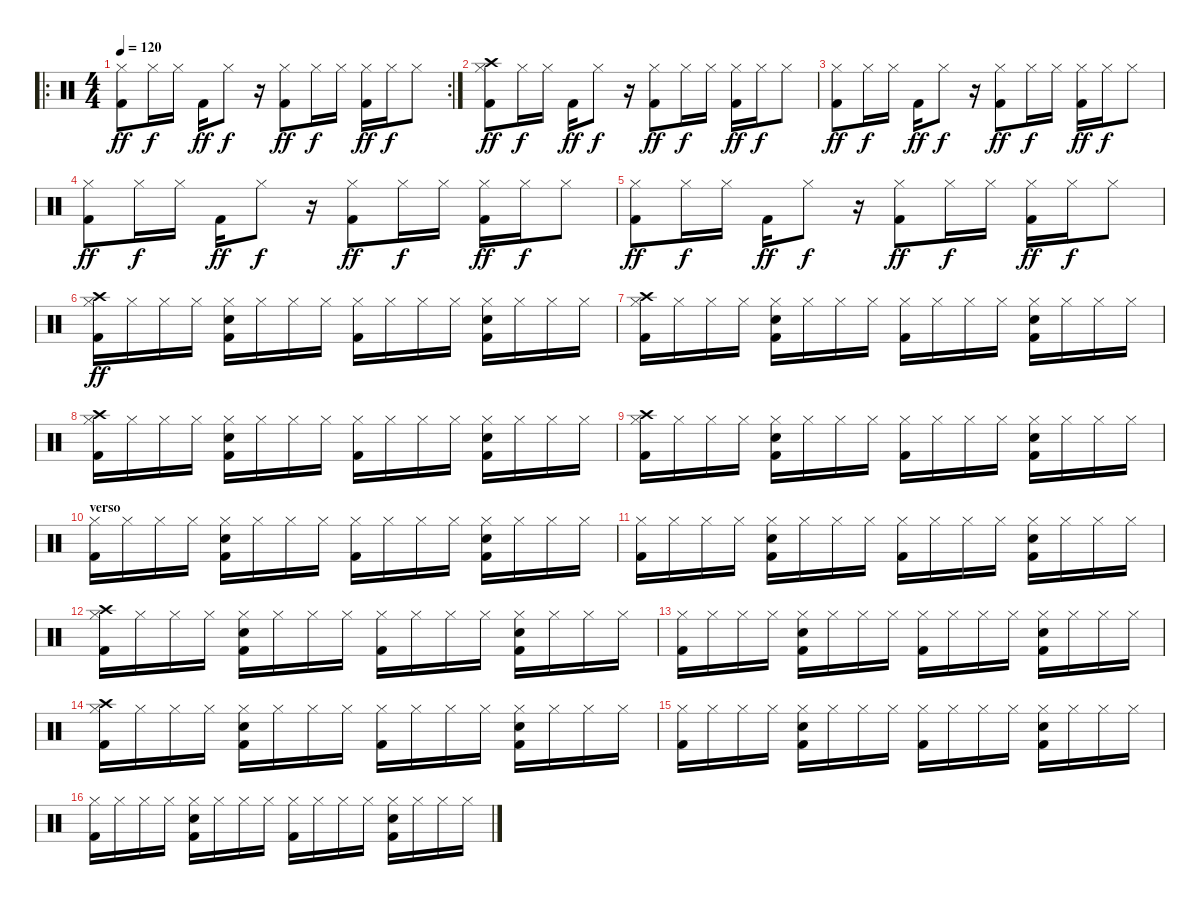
\track "" {instrument percussion}
\staff {score}
\articulation defaults
\ro
\rc 2
\ts (4 4)
\tempo 120
\clef neutral
\ks c
("Hi-Hat (closed)" "Kick (hit) 2").8{dy ff} "Hi-Hat (closed)".16{dy f} "Hi-Hat (closed)".16 "Kick (hit) 2".16{dy ff} "Hi-Hat (closed)".8{dy f} r.16 ("Hi-Hat (closed)" "Kick (hit) 2").8{dy ff} "Hi-Hat (closed)".16{dy f} "Hi-Hat (closed)".16 ("Hi-Hat (closed)" "Kick (hit) 2").16{dy ff} "Hi-Hat (closed)".16{dy f} "Hi-Hat (closed)".8 |
("Crash high (hit)" "Hi-Hat (closed)" "Kick (hit) 2").8{dy ff} "Hi-Hat (closed)".16{dy f} "Hi-Hat (closed)".16 "Kick (hit) 2".16{dy ff} "Hi-Hat (closed)".8{dy f} r.16 ("Hi-Hat (closed)" "Kick (hit) 2").8{dy ff} "Hi-Hat (closed)".16{dy f} "Hi-Hat (closed)".16 ("Hi-Hat (closed)" "Kick (hit) 2").16{dy ff} "Hi-Hat (closed)".16{dy f} "Hi-Hat (closed)".8 |
("Hi-Hat (closed)" "Kick (hit) 2").8{dy ff} "Hi-Hat (closed)".16{dy f} "Hi-Hat (closed)".16 "Kick (hit) 2".16{dy ff} "Hi-Hat (closed)".8{dy f} r.16 ("Hi-Hat (closed)" "Kick (hit) 2").8{dy ff} "Hi-Hat (closed)".16{dy f} "Hi-Hat (closed)".16 ("Hi-Hat (closed)" "Kick (hit) 2").16{dy ff} "Hi-Hat (closed)".16{dy f} "Hi-Hat (closed)".8 |
("Hi-Hat (closed)" "Kick (hit) 2").8{dy ff} "Hi-Hat (closed)".16{dy f} "Hi-Hat (closed)".16 "Kick (hit) 2".16{dy ff} "Hi-Hat (closed)".8{dy f} r.16 ("Hi-Hat (closed)" "Kick (hit) 2").8{dy ff} "Hi-Hat (closed)".16{dy f} "Hi-Hat (closed)".16 ("Hi-Hat (closed)" "Kick (hit) 2").16{dy ff} "Hi-Hat (closed)".16{dy f} "Hi-Hat (closed)".8 |
("Hi-Hat (closed)" "Kick (hit) 2").8{dy ff} "Hi-Hat (closed)".16{dy f} "Hi-Hat (closed)".16 "Kick (hit) 2".16{dy ff} "Hi-Hat (closed)".8{dy f} r.16 ("Hi-Hat (closed)" "Kick (hit) 2").8{dy ff} "Hi-Hat (closed)".16{dy f} "Hi-Hat (closed)".16 ("Hi-Hat (closed)" "Kick (hit) 2").16{dy ff} "Hi-Hat (closed)".16{dy f} "Hi-Hat (closed)".8 |
("Crash high (hit)" "Hi-Hat (closed)" "Kick (hit) 2").16{dy ff} "Hi-Hat (closed)".16 "Hi-Hat (closed)".16 "Hi-Hat (closed)".16 ("Hi-Hat (closed)" "Electric Snare (hit)" "Kick (hit) 2").16 "Hi-Hat (closed)".16 "Hi-Hat (closed)".16 "Hi-Hat (closed)".16 ("Hi-Hat (closed)" "Kick (hit) 2").16 "Hi-Hat (closed)".16 "Hi-Hat (closed)".16 "Hi-Hat (closed)".16 ("Hi-Hat (closed)" "Electric Snare (hit)" "Kick (hit) 2").16 "Hi-Hat (closed)".16 "Hi-Hat (closed)".16 "Hi-Hat (closed)".16 |
("Crash high (hit)" "Hi-Hat (closed)" "Kick (hit) 2").16 "Hi-Hat (closed)".16 "Hi-Hat (closed)".16 "Hi-Hat (closed)".16 ("Hi-Hat (closed)" "Electric Snare (hit)" "Kick (hit) 2").16 "Hi-Hat (closed)".16 "Hi-Hat (closed)".16 "Hi-Hat (closed)".16 ("Hi-Hat (closed)" "Kick (hit) 2").16 "Hi-Hat (closed)".16 "Hi-Hat (closed)".16 "Hi-Hat (closed)".16 ("Hi-Hat (closed)" "Electric Snare (hit)" "Kick (hit) 2").16 "Hi-Hat (closed)".16 "Hi-Hat (closed)".16 "Hi-Hat (closed)".16 |
("Crash high (hit)" "Hi-Hat (closed)" "Kick (hit) 2").16 "Hi-Hat (closed)".16 "Hi-Hat (closed)".16 "Hi-Hat (closed)".16 ("Hi-Hat (closed)" "Electric Snare (hit)" "Kick (hit) 2").16 "Hi-Hat (closed)".16 "Hi-Hat (closed)".16 "Hi-Hat (closed)".16 ("Hi-Hat (closed)" "Kick (hit) 2").16 "Hi-Hat (closed)".16 "Hi-Hat (closed)".16 "Hi-Hat (closed)".16 ("Hi-Hat (closed)" "Electric Snare (hit)" "Kick (hit) 2").16 "Hi-Hat (closed)".16 "Hi-Hat (closed)".16 "Hi-Hat (closed)".16 |
("Crash high (hit)" "Hi-Hat (closed)" "Kick (hit) 2").16 "Hi-Hat (closed)".16 "Hi-Hat (closed)".16 "Hi-Hat (closed)".16 ("Hi-Hat (closed)" "Electric Snare (hit)" "Kick (hit) 2").16 "Hi-Hat (closed)".16 "Hi-Hat (closed)".16 "Hi-Hat (closed)".16 ("Hi-Hat (closed)" "Kick (hit) 2").16 "Hi-Hat (closed)".16 "Hi-Hat (closed)".16 "Hi-Hat (closed)".16 ("Hi-Hat (closed)" "Electric Snare (hit)" "Kick (hit) 2").16 "Hi-Hat (closed)".16 "Hi-Hat (closed)".16 "Hi-Hat (closed)".16 |
\section ("" "verso")
("Hi-Hat (closed)" "Kick (hit) 2").16 "Hi-Hat (closed)".16 "Hi-Hat (closed)".16 "Hi-Hat (closed)".16 ("Hi-Hat (closed)" "Electric Snare (hit)" "Kick (hit) 2").16 "Hi-Hat (closed)".16 "Hi-Hat (closed)".16 "Hi-Hat (closed)".16 ("Hi-Hat (closed)" "Kick (hit) 2").16 "Hi-Hat (closed)".16 "Hi-Hat (closed)".16 "Hi-Hat (closed)".16 ("Hi-Hat (closed)" "Electric Snare (hit)" "Kick (hit) 2").16 "Hi-Hat (closed)".16 "Hi-Hat (closed)".16 "Hi-Hat (closed)".16 |
("Hi-Hat (closed)" "Kick (hit) 2").16 "Hi-Hat (closed)".16 "Hi-Hat (closed)".16 "Hi-Hat (closed)".16 ("Hi-Hat (closed)" "Electric Snare (hit)" "Kick (hit) 2").16 "Hi-Hat (closed)".16 "Hi-Hat (closed)".16 "Hi-Hat (closed)".16 ("Hi-Hat (closed)" "Kick (hit) 2").16 "Hi-Hat (closed)".16 "Hi-Hat (closed)".16 "Hi-Hat (closed)".16 ("Hi-Hat (closed)" "Electric Snare (hit)" "Kick (hit) 2").16 "Hi-Hat (closed)".16 "Hi-Hat (closed)".16 "Hi-Hat (closed)".16 |
("Crash high (hit)" "Hi-Hat (closed)" "Kick (hit) 2").16 "Hi-Hat (closed)".16 "Hi-Hat (closed)".16 "Hi-Hat (closed)".16 ("Hi-Hat (closed)" "Electric Snare (hit)" "Kick (hit) 2").16 "Hi-Hat (closed)".16 "Hi-Hat (closed)".16 "Hi-Hat (closed)".16 ("Hi-Hat (closed)" "Kick (hit) 2").16 "Hi-Hat (closed)".16 "Hi-Hat (closed)".16 "Hi-Hat (closed)".16 ("Hi-Hat (closed)" "Electric Snare (hit)" "Kick (hit) 2").16 "Hi-Hat (closed)".16 "Hi-Hat (closed)".16 "Hi-Hat (closed)".16 |
("Hi-Hat (closed)" "Kick (hit) 2").16 "Hi-Hat (closed)".16 "Hi-Hat (closed)".16 "Hi-Hat (closed)".16 ("Hi-Hat (closed)" "Electric Snare (hit)" "Kick (hit) 2").16 "Hi-Hat (closed)".16 "Hi-Hat (closed)".16 "Hi-Hat (closed)".16 ("Hi-Hat (closed)" "Kick (hit) 2").16 "Hi-Hat (closed)".16 "Hi-Hat (closed)".16 "Hi-Hat (closed)".16 ("Hi-Hat (closed)" "Electric Snare (hit)" "Kick (hit) 2").16 "Hi-Hat (closed)".16 "Hi-Hat (closed)".16 "Hi-Hat (closed)".16 |
("Crash high (hit)" "Hi-Hat (closed)" "Kick (hit) 2").16 "Hi-Hat (closed)".16 "Hi-Hat (closed)".16 "Hi-Hat (closed)".16 ("Hi-Hat (closed)" "Electric Snare (hit)" "Kick (hit) 2").16 "Hi-Hat (closed)".16 "Hi-Hat (closed)".16 "Hi-Hat (closed)".16 ("Hi-Hat (closed)" "Kick (hit) 2").16 "Hi-Hat (closed)".16 "Hi-Hat (closed)".16 "Hi-Hat (closed)".16 ("Hi-Hat (closed)" "Electric Snare (hit)" "Kick (hit) 2").16 "Hi-Hat (closed)".16 "Hi-Hat (closed)".16 "Hi-Hat (closed)".16 |
("Hi-Hat (closed)" "Kick (hit) 2").16 "Hi-Hat (closed)".16 "Hi-Hat (closed)".16 "Hi-Hat (closed)".16 ("Hi-Hat (closed)" "Electric Snare (hit)" "Kick (hit) 2").16 "Hi-Hat (closed)".16 "Hi-Hat (closed)".16 "Hi-Hat (closed)".16 ("Hi-Hat (closed)" "Kick (hit) 2").16 "Hi-Hat (closed)".16 "Hi-Hat (closed)".16 "Hi-Hat (closed)".16 ("Hi-Hat (closed)" "Electric Snare (hit)" "Kick (hit) 2").16 "Hi-Hat (closed)".16 "Hi-Hat (closed)".16 "Hi-Hat (closed)".16 |
("Hi-Hat (closed)" "Kick (hit) 2").16 "Hi-Hat (closed)".16 "Hi-Hat (closed)".16 "Hi-Hat (closed)".16 ("Hi-Hat (closed)" "Electric Snare (hit)" "Kick (hit) 2").16 "Hi-Hat (closed)".16 "Hi-Hat (closed)".16 "Hi-Hat (closed)".16 ("Hi-Hat (closed)" "Kick (hit) 2").16 "Hi-Hat (closed)".16 "Hi-Hat (closed)".16 "Hi-Hat (closed)".16 ("Hi-Hat (closed)" "Electric Snare (hit)" "Kick (hit) 2").16 "Hi-Hat (closed)".16 "Hi-Hat (closed)".16 "Hi-Hat (closed)".16
